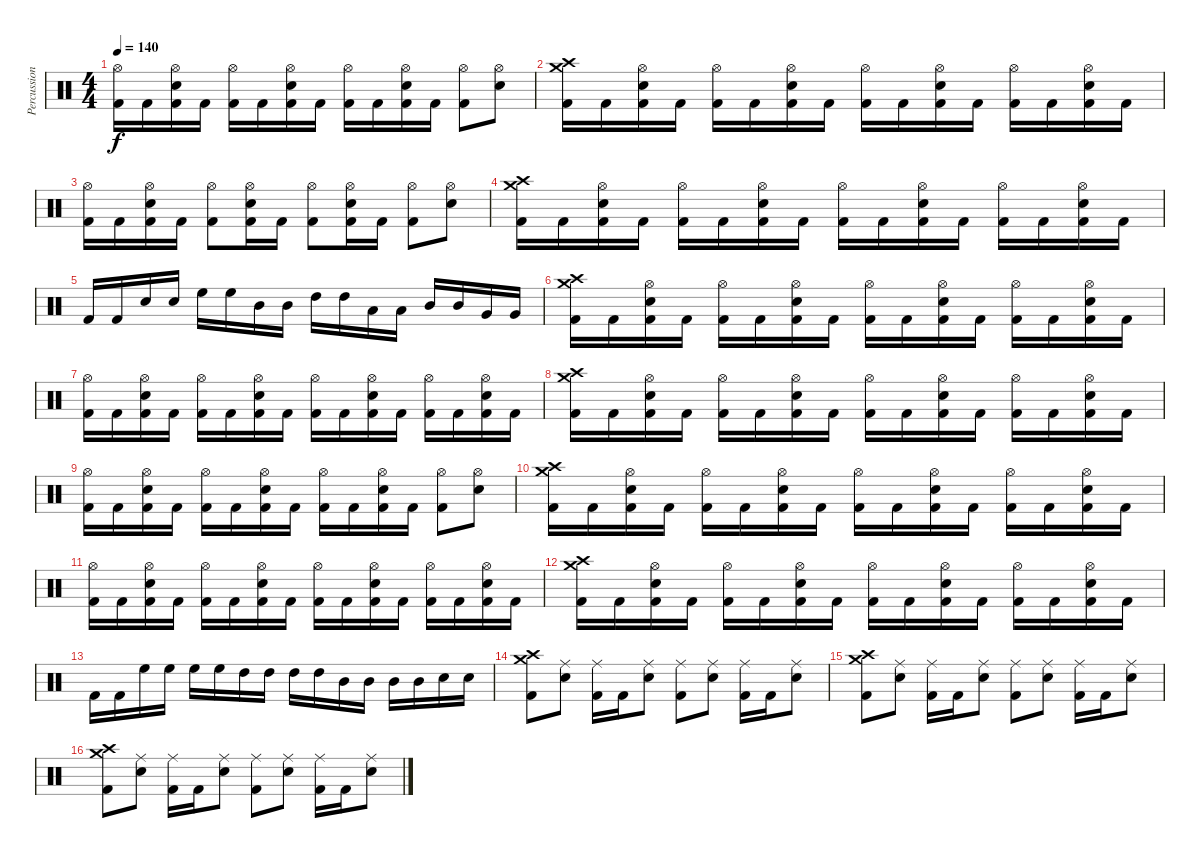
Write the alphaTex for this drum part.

\track ("Percussion" "Percussion") {instrument percussion}
\staff {score}
\articulation defaults
\ts (4 4)
\tempo 140
\clef neutral
\ks c
("Kick (hit) 2" "Hi-Hat (open)").16{dy f} "Kick (hit) 2".16 ("Kick (hit) 2" "Electric Snare (hit)" "Hi-Hat (open)").16 "Kick (hit) 2".16 ("Kick (hit) 2" "Hi-Hat (open)").16 "Kick (hit) 2".16 ("Kick (hit) 2" "Electric Snare (hit)" "Hi-Hat (open)").16 "Kick (hit) 2".16 ("Kick (hit) 2" "Hi-Hat (open)").16 "Kick (hit) 2".16 ("Kick (hit) 2" "Electric Snare (hit)" "Hi-Hat (open)").16 "Kick (hit) 2".16 ("Kick (hit) 2" "Hi-Hat (open)").8 ("Electric Snare (hit)" "Hi-Hat (open)").8 |
("Kick (hit) 2" "Crash high (hit)" "Crash medium (hit)").16 "Kick (hit) 2".16 ("Kick (hit) 2" "Electric Snare (hit)" "Hi-Hat (open)").16 "Kick (hit) 2".16 ("Kick (hit) 2" "Hi-Hat (open)").16 "Kick (hit) 2".16 ("Kick (hit) 2" "Electric Snare (hit)" "Hi-Hat (open)").16 "Kick (hit) 2".16 ("Kick (hit) 2" "Hi-Hat (open)").16 "Kick (hit) 2".16 ("Kick (hit) 2" "Electric Snare (hit)" "Hi-Hat (open)").16 "Kick (hit) 2".16 ("Kick (hit) 2" "Hi-Hat (open)").16 "Kick (hit) 2".16 ("Kick (hit) 2" "Electric Snare (hit)" "Hi-Hat (open)").16 "Kick (hit) 2".16 |
("Kick (hit) 2" "Hi-Hat (open)").16 "Kick (hit) 2".16 ("Kick (hit) 2" "Electric Snare (hit)" "Hi-Hat (open)").16 "Kick (hit) 2".16 ("Kick (hit) 2" "Hi-Hat (open)").8 ("Kick (hit) 2" "Electric Snare (hit)" "Hi-Hat (open)").16 "Kick (hit) 2".16 ("Kick (hit) 2" "Hi-Hat (open)").8 ("Kick (hit) 2" "Electric Snare (hit)" "Hi-Hat (open)").16 "Kick (hit) 2".16 ("Kick (hit) 2" "Hi-Hat (open)").8 ("Electric Snare (hit)" "Hi-Hat (open)").8 |
("Kick (hit) 2" "Crash high (hit)" "Crash medium (hit)").16 "Kick (hit) 2".16 ("Kick (hit) 2" "Electric Snare (hit)" "Hi-Hat (open)").16 "Kick (hit) 2".16 ("Kick (hit) 2" "Hi-Hat (open)").16 "Kick (hit) 2".16 ("Kick (hit) 2" "Electric Snare (hit)" "Hi-Hat (open)").16 "Kick (hit) 2".16 ("Kick (hit) 2" "Hi-Hat (open)").16 "Kick (hit) 2".16 ("Kick (hit) 2" "Electric Snare (hit)" "Hi-Hat (open)").16 "Kick (hit) 2".16 ("Kick (hit) 2" "Hi-Hat (open)").16 "Kick (hit) 2".16 ("Kick (hit) 2" "Electric Snare (hit)" "Hi-Hat (open)").16 "Kick (hit) 2".16 |
"Kick (hit) 2".16 "Kick (hit) 2".16 "Electric Snare (hit)".16 "Electric Snare (hit)".16 "High Floor Tom (hit)".16 "High Floor Tom (hit)".16 "Mid Tom (hit)".16 "Mid Tom (hit)".16 "High Tom (hit)".16 "High Tom (hit)".16 "Low Tom (hit)".16 "Low Tom (hit)".16 "Mid Tom (hit)".16 "Mid Tom (hit)".16 "Very Low Tom (hit)".16 "Very Low Tom (hit)".16 |
("Kick (hit) 2" "Crash high (hit)" "Crash medium (hit)").16 "Kick (hit) 2".16 ("Kick (hit) 2" "Electric Snare (hit)" "Hi-Hat (open)").16 "Kick (hit) 2".16 ("Kick (hit) 2" "Hi-Hat (open)").16 "Kick (hit) 2".16 ("Kick (hit) 2" "Electric Snare (hit)" "Hi-Hat (open)").16 "Kick (hit) 2".16 ("Kick (hit) 2" "Hi-Hat (open)").16 "Kick (hit) 2".16 ("Kick (hit) 2" "Electric Snare (hit)" "Hi-Hat (open)").16 "Kick (hit) 2".16 ("Kick (hit) 2" "Hi-Hat (open)").16 "Kick (hit) 2".16 ("Kick (hit) 2" "Electric Snare (hit)" "Hi-Hat (open)").16 "Kick (hit) 2".16 |
("Kick (hit) 2" "Hi-Hat (open)").16 "Kick (hit) 2".16 ("Kick (hit) 2" "Electric Snare (hit)" "Hi-Hat (open)").16 "Kick (hit) 2".16 ("Kick (hit) 2" "Hi-Hat (open)").16 "Kick (hit) 2".16 ("Kick (hit) 2" "Electric Snare (hit)" "Hi-Hat (open)").16 "Kick (hit) 2".16 ("Kick (hit) 2" "Hi-Hat (open)").16 "Kick (hit) 2".16 ("Kick (hit) 2" "Electric Snare (hit)" "Hi-Hat (open)").16 "Kick (hit) 2".16 ("Kick (hit) 2" "Hi-Hat (open)").16 "Kick (hit) 2".16 ("Kick (hit) 2" "Electric Snare (hit)" "Hi-Hat (open)").16 "Kick (hit) 2".16 |
("Kick (hit) 2" "Crash high (hit)" "Crash medium (hit)").16 "Kick (hit) 2".16 ("Kick (hit) 2" "Electric Snare (hit)" "Hi-Hat (open)").16 "Kick (hit) 2".16 ("Kick (hit) 2" "Hi-Hat (open)").16 "Kick (hit) 2".16 ("Kick (hit) 2" "Electric Snare (hit)" "Hi-Hat (open)").16 "Kick (hit) 2".16 ("Kick (hit) 2" "Hi-Hat (open)").16 "Kick (hit) 2".16 ("Kick (hit) 2" "Electric Snare (hit)" "Hi-Hat (open)").16 "Kick (hit) 2".16 ("Kick (hit) 2" "Hi-Hat (open)").16 "Kick (hit) 2".16 ("Kick (hit) 2" "Electric Snare (hit)" "Hi-Hat (open)").16 "Kick (hit) 2".16 |
("Kick (hit) 2" "Hi-Hat (open)").16 "Kick (hit) 2".16 ("Kick (hit) 2" "Electric Snare (hit)" "Hi-Hat (open)").16 "Kick (hit) 2".16 ("Kick (hit) 2" "Hi-Hat (open)").16 "Kick (hit) 2".16 ("Kick (hit) 2" "Electric Snare (hit)" "Hi-Hat (open)").16 "Kick (hit) 2".16 ("Kick (hit) 2" "Hi-Hat (open)").16 "Kick (hit) 2".16 ("Kick (hit) 2" "Electric Snare (hit)" "Hi-Hat (open)").16 "Kick (hit) 2".16 ("Kick (hit) 2" "Hi-Hat (open)").8 ("Electric Snare (hit)" "Hi-Hat (open)").8 |
("Kick (hit) 2" "Crash high (hit)" "Crash medium (hit)").16 "Kick (hit) 2".16 ("Kick (hit) 2" "Electric Snare (hit)" "Hi-Hat (open)").16 "Kick (hit) 2".16 ("Kick (hit) 2" "Hi-Hat (open)").16 "Kick (hit) 2".16 ("Kick (hit) 2" "Electric Snare (hit)" "Hi-Hat (open)").16 "Kick (hit) 2".16 ("Kick (hit) 2" "Hi-Hat (open)").16 "Kick (hit) 2".16 ("Kick (hit) 2" "Electric Snare (hit)" "Hi-Hat (open)").16 "Kick (hit) 2".16 ("Kick (hit) 2" "Hi-Hat (open)").16 "Kick (hit) 2".16 ("Kick (hit) 2" "Electric Snare (hit)" "Hi-Hat (open)").16 "Kick (hit) 2".16 |
("Kick (hit) 2" "Hi-Hat (open)").16 "Kick (hit) 2".16 ("Kick (hit) 2" "Electric Snare (hit)" "Hi-Hat (open)").16 "Kick (hit) 2".16 ("Kick (hit) 2" "Hi-Hat (open)").16 "Kick (hit) 2".16 ("Kick (hit) 2" "Electric Snare (hit)" "Hi-Hat (open)").16 "Kick (hit) 2".16 ("Kick (hit) 2" "Hi-Hat (open)").16 "Kick (hit) 2".16 ("Kick (hit) 2" "Electric Snare (hit)" "Hi-Hat (open)").16 "Kick (hit) 2".16 ("Kick (hit) 2" "Hi-Hat (open)").16 "Kick (hit) 2".16 ("Kick (hit) 2" "Electric Snare (hit)" "Hi-Hat (open)").16 "Kick (hit) 2".16 |
("Kick (hit) 2" "Crash high (hit)" "Crash medium (hit)").16 "Kick (hit) 2".16 ("Kick (hit) 2" "Electric Snare (hit)" "Hi-Hat (open)").16 "Kick (hit) 2".16 ("Kick (hit) 2" "Hi-Hat (open)").16 "Kick (hit) 2".16 ("Kick (hit) 2" "Electric Snare (hit)" "Hi-Hat (open)").16 "Kick (hit) 2".16 ("Kick (hit) 2" "Hi-Hat (open)").16 "Kick (hit) 2".16 ("Kick (hit) 2" "Electric Snare (hit)" "Hi-Hat (open)").16 "Kick (hit) 2".16 ("Kick (hit) 2" "Hi-Hat (open)").16 "Kick (hit) 2".16 ("Kick (hit) 2" "Electric Snare (hit)" "Hi-Hat (open)").16 "Kick (hit) 2".16 |
"Kick (hit) 2".16 "Kick (hit) 2".16 "High Floor Tom (hit)".16 "High Floor Tom (hit)".16 "High Floor Tom (hit)".16 "High Floor Tom (hit)".16 "High Tom (hit)".16 "High Tom (hit)".16 "High Tom (hit)".16 "High Tom (hit)".16 "Mid Tom (hit)".16 "Mid Tom (hit)".16 "Mid Tom (hit)".16 "Mid Tom (hit)".16 "Electric Snare (hit)".16 "Electric Snare (hit)".16 |
("Kick (hit) 2" "Crash high (hit)" "Crash medium (hit)").8 ("Electric Snare (hit)" "Ride (middle)").8 ("Kick (hit) 2" "Ride (middle)").16 "Kick (hit) 2".16 ("Electric Snare (hit)" "Ride (middle)").8 ("Kick (hit) 2" "Ride (middle)").8 ("Electric Snare (hit)" "Ride (middle)").8 ("Kick (hit) 2" "Ride (middle)").16 "Kick (hit) 2".16 ("Electric Snare (hit)" "Ride (middle)").8 |
("Kick (hit) 2" "Crash high (hit)" "Crash medium (hit)").8 ("Electric Snare (hit)" "Ride (middle)").8 ("Kick (hit) 2" "Ride (middle)").16 "Kick (hit) 2".16 ("Electric Snare (hit)" "Ride (middle)").8 ("Kick (hit) 2" "Ride (middle)").8 ("Electric Snare (hit)" "Ride (middle)").8 ("Kick (hit) 2" "Ride (middle)").16 "Kick (hit) 2".16 ("Electric Snare (hit)" "Ride (middle)").8 |
("Kick (hit) 2" "Crash high (hit)" "Crash medium (hit)").8 ("Electric Snare (hit)" "Ride (middle)").8 ("Kick (hit) 2" "Ride (middle)").16 "Kick (hit) 2".16 ("Electric Snare (hit)" "Ride (middle)").8 ("Kick (hit) 2" "Ride (middle)").8 ("Electric Snare (hit)" "Ride (middle)").8 ("Kick (hit) 2" "Ride (middle)").16 "Kick (hit) 2".16 ("Electric Snare (hit)" "Ride (middle)").8
